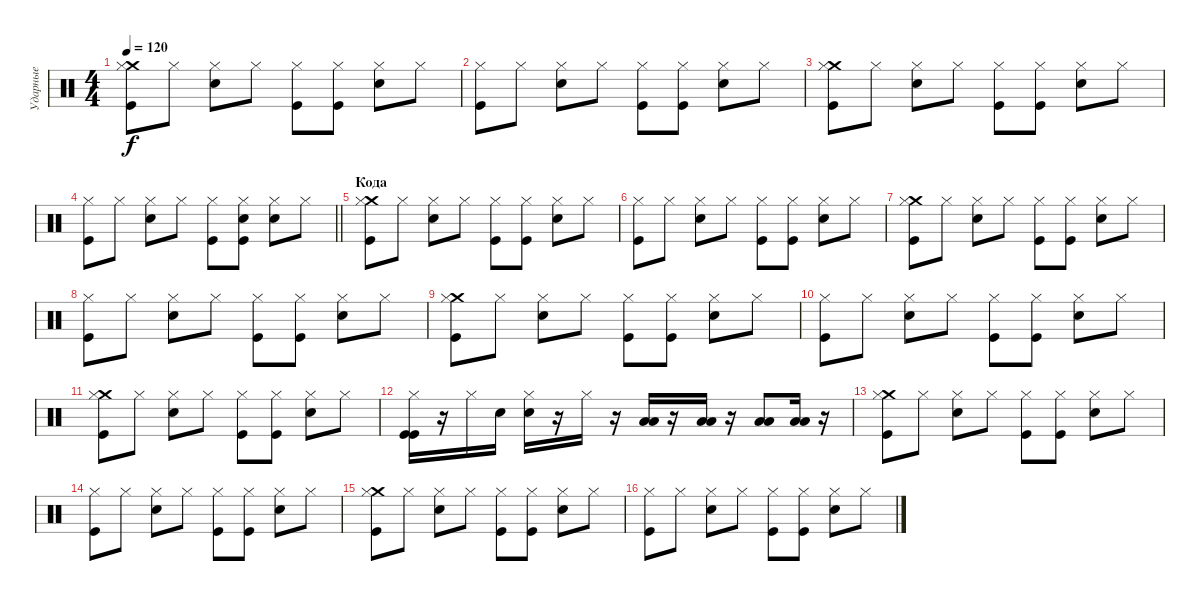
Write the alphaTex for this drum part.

\track ("Ударные" "Ударные") {instrument percussion}
\staff {score}
\articulation defaults
\ts (4 4)
\tempo 120
\clef neutral
\ks c
("Crash medium (hit)" "Hi-Hat (closed)" "Kick (hit)").8{dy f} "Hi-Hat (closed)".8 ("Snare (hit) 2" "Hi-Hat (closed)").8 "Hi-Hat (closed)".8 ("Kick (hit)" "Hi-Hat (closed)").8 ("Kick (hit)" "Hi-Hat (closed)").8 ("Snare (hit) 2" "Hi-Hat (closed)").8 "Hi-Hat (closed)".8 |
("Kick (hit)" "Hi-Hat (closed)").8 "Hi-Hat (closed)".8 ("Snare (hit) 2" "Hi-Hat (closed)").8 "Hi-Hat (closed)".8 ("Kick (hit)" "Hi-Hat (closed)").8 ("Kick (hit)" "Hi-Hat (closed)").8 ("Snare (hit) 2" "Hi-Hat (closed)").8 "Hi-Hat (closed)".8 |
("Crash medium (hit)" "Hi-Hat (closed)" "Kick (hit)").8 "Hi-Hat (closed)".8 ("Snare (hit) 2" "Hi-Hat (closed)").8 "Hi-Hat (closed)".8 ("Kick (hit)" "Hi-Hat (closed)").8 ("Kick (hit)" "Hi-Hat (closed)").8 ("Snare (hit) 2" "Hi-Hat (closed)").8 "Hi-Hat (closed)".8 |
\barLineRight lightlight
("Kick (hit)" "Hi-Hat (closed)").8 "Hi-Hat (closed)".8 ("Snare (hit) 2" "Hi-Hat (closed)").8 "Hi-Hat (closed)".8 ("Kick (hit)" "Hi-Hat (closed)").8 ("Kick (hit)" "Hi-Hat (closed)" "Snare (hit) 2").8 ("Snare (hit) 2" "Hi-Hat (closed)").8 "Hi-Hat (closed)".8 |
\section ("" "Кода")
("Crash medium (hit)" "Hi-Hat (closed)" "Kick (hit)").8 "Hi-Hat (closed)".8 ("Snare (hit) 2" "Hi-Hat (closed)").8 "Hi-Hat (closed)".8 ("Kick (hit)" "Hi-Hat (closed)").8 ("Kick (hit)" "Hi-Hat (closed)").8 ("Snare (hit) 2" "Hi-Hat (closed)").8 "Hi-Hat (closed)".8 |
("Kick (hit)" "Hi-Hat (closed)").8 "Hi-Hat (closed)".8 ("Snare (hit) 2" "Hi-Hat (closed)").8 "Hi-Hat (closed)".8 ("Kick (hit)" "Hi-Hat (closed)").8 ("Kick (hit)" "Hi-Hat (closed)").8 ("Snare (hit) 2" "Hi-Hat (closed)").8 "Hi-Hat (closed)".8 |
("Crash medium (hit)" "Hi-Hat (closed)" "Kick (hit)").8 "Hi-Hat (closed)".8 ("Snare (hit) 2" "Hi-Hat (closed)").8 "Hi-Hat (closed)".8 ("Kick (hit)" "Hi-Hat (closed)").8 ("Kick (hit)" "Hi-Hat (closed)").8 ("Snare (hit) 2" "Hi-Hat (closed)").8 "Hi-Hat (closed)".8 |
("Kick (hit)" "Hi-Hat (closed)").8 "Hi-Hat (closed)".8 ("Snare (hit) 2" "Hi-Hat (closed)").8 "Hi-Hat (closed)".8 ("Kick (hit)" "Hi-Hat (closed)").8 ("Kick (hit)" "Hi-Hat (closed)").8 ("Snare (hit) 2" "Hi-Hat (closed)").8 "Hi-Hat (closed)".8 |
("Crash medium (hit)" "Hi-Hat (closed)" "Kick (hit)").8{volume 11} "Hi-Hat (closed)".8 ("Snare (hit) 2" "Hi-Hat (closed)").8 "Hi-Hat (closed)".8 ("Kick (hit)" "Hi-Hat (closed)").8 ("Kick (hit)" "Hi-Hat (closed)").8 ("Snare (hit) 2" "Hi-Hat (closed)").8 "Hi-Hat (closed)".8 |
("Kick (hit)" "Hi-Hat (closed)").8{volume 10} "Hi-Hat (closed)".8 ("Snare (hit) 2" "Hi-Hat (closed)").8 "Hi-Hat (closed)".8 ("Kick (hit)" "Hi-Hat (closed)").8 ("Kick (hit)" "Hi-Hat (closed)").8 ("Snare (hit) 2" "Hi-Hat (closed)").8 "Hi-Hat (closed)".8 |
("Crash medium (hit)" "Hi-Hat (closed)" "Kick (hit)").8{volume 9} "Hi-Hat (closed)".8 ("Snare (hit) 2" "Hi-Hat (closed)").8 "Hi-Hat (closed)".8 ("Kick (hit)" "Hi-Hat (closed)").8 ("Kick (hit)" "Hi-Hat (closed)").8 ("Snare (hit) 2" "Hi-Hat (closed)").8 "Hi-Hat (closed)".8 |
("Kick (hit)" "Hi-Hat (closed)" "Kick (hit)").16{volume 8} r.16 "Hi-Hat (closed)".16 "Snare (hit) 2".16 ("Hi-Hat (closed)" "Snare (hit) 2").16 r.16 "Hi-Hat (closed)".16 r.16 ("Low Tom (hit)" "Low Tom (hit)").16 r.16 ("Low Tom (hit)" "Low Tom (hit)").16 r.16 ("Low Floor Tom (hit)" "Low Floor Tom (hit)").8 ("Low Floor Tom (hit)" "Low Floor Tom (hit)").16 r.16 |
("Crash medium (hit)" "Hi-Hat (closed)" "Kick (hit)").8{volume 7} "Hi-Hat (closed)".8 ("Snare (hit) 2" "Hi-Hat (closed)").8 "Hi-Hat (closed)".8 ("Kick (hit)" "Hi-Hat (closed)").8 ("Kick (hit)" "Hi-Hat (closed)").8 ("Snare (hit) 2" "Hi-Hat (closed)").8 "Hi-Hat (closed)".8 |
("Kick (hit)" "Hi-Hat (closed)").8{volume 6} "Hi-Hat (closed)".8 ("Snare (hit) 2" "Hi-Hat (closed)").8 "Hi-Hat (closed)".8 ("Kick (hit)" "Hi-Hat (closed)").8 ("Kick (hit)" "Hi-Hat (closed)").8 ("Snare (hit) 2" "Hi-Hat (closed)").8 "Hi-Hat (closed)".8 |
("Crash medium (hit)" "Hi-Hat (closed)" "Kick (hit)").8{volume 4} "Hi-Hat (closed)".8 ("Snare (hit) 2" "Hi-Hat (closed)").8 "Hi-Hat (closed)".8 ("Kick (hit)" "Hi-Hat (closed)").8 ("Kick (hit)" "Hi-Hat (closed)").8 ("Snare (hit) 2" "Hi-Hat (closed)").8 "Hi-Hat (closed)".8 |
("Kick (hit)" "Hi-Hat (closed)").8{volume 2} "Hi-Hat (closed)".8 ("Snare (hit) 2" "Hi-Hat (closed)").8 "Hi-Hat (closed)".8 ("Kick (hit)" "Hi-Hat (closed)").8 ("Kick (hit)" "Hi-Hat (closed)").8 ("Snare (hit) 2" "Hi-Hat (closed)").8 "Hi-Hat (closed)".8
